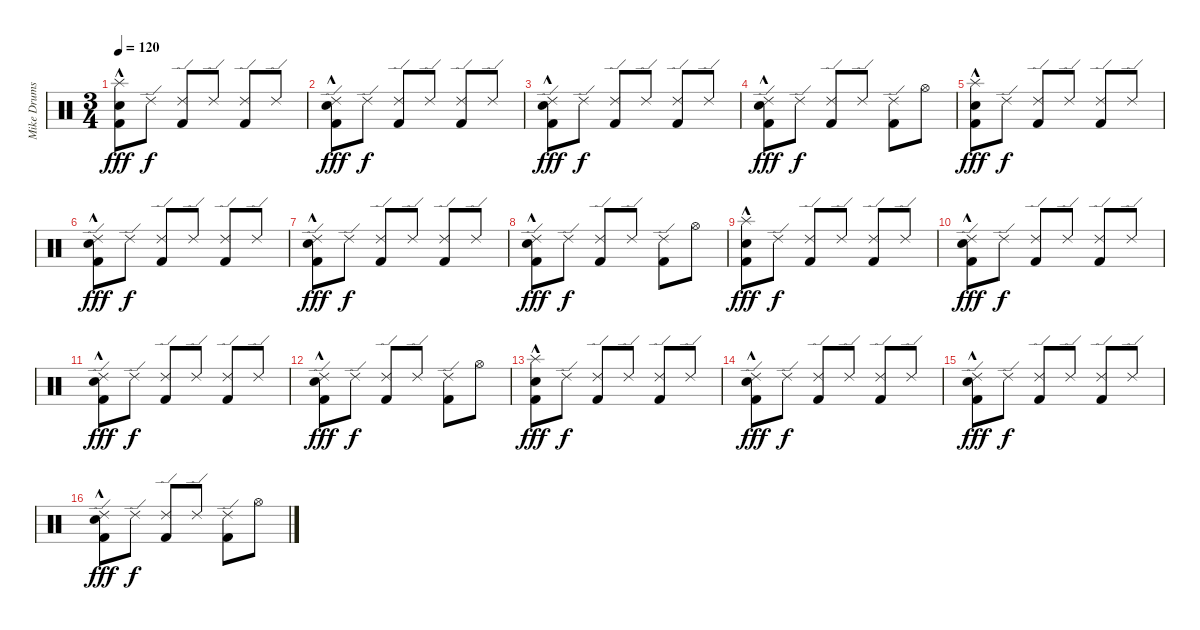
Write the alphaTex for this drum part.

\track ("Mike Drums" "Mike Drums") {instrument percussion}
\staff {score}
\articulation defaults
\ts (3 4)
\tempo 120
\clef neutral
\ks c
("Splash (hit)"{hac} "Snare (hit) 2"{hac} "Kick (hit) 2").8{dy fff} "Ride (edge) 2".8{dy f} ("Ride (edge) 2" "Kick (hit) 2").8 "Ride (edge) 2".8 ("Ride (edge) 2" "Kick (hit) 2").8 "Ride (edge) 2".8 |
("Ride (edge) 2" "Snare (hit) 2"{hac} "Kick (hit) 2").8{dy fff} "Ride (edge) 2".8{dy f} ("Ride (edge) 2" "Kick (hit) 2").8 "Ride (edge) 2".8 ("Ride (edge) 2" "Kick (hit) 2").8 "Ride (edge) 2".8 |
("Ride (edge) 2" "Snare (hit) 2"{hac} "Kick (hit) 2").8{dy fff} "Ride (edge) 2".8{dy f} ("Ride (edge) 2" "Kick (hit) 2").8 "Ride (edge) 2".8 ("Ride (edge) 2" "Kick (hit) 2").8 "Ride (edge) 2".8 |
("Ride (edge) 2" "Snare (hit) 2"{hac} "Kick (hit) 2").8{dy fff} "Ride (edge) 2".8{dy f} ("Ride (edge) 2" "Kick (hit) 2").8 "Ride (edge) 2".8 ("Ride (edge) 2" "Kick (hit) 2").8 "Hi-Hat (open)".8 |
("Splash (hit)"{hac} "Snare (hit) 2"{hac} "Kick (hit) 2").8{dy fff} "Ride (edge) 2".8{dy f} ("Ride (edge) 2" "Kick (hit) 2").8 "Ride (edge) 2".8 ("Ride (edge) 2" "Kick (hit) 2").8 "Ride (edge) 2".8 |
("Ride (edge) 2" "Snare (hit) 2"{hac} "Kick (hit) 2").8{dy fff} "Ride (edge) 2".8{dy f} ("Ride (edge) 2" "Kick (hit) 2").8 "Ride (edge) 2".8 ("Ride (edge) 2" "Kick (hit) 2").8 "Ride (edge) 2".8 |
("Ride (edge) 2" "Snare (hit) 2"{hac} "Kick (hit) 2").8{dy fff} "Ride (edge) 2".8{dy f} ("Ride (edge) 2" "Kick (hit) 2").8 "Ride (edge) 2".8 ("Ride (edge) 2" "Kick (hit) 2").8 "Ride (edge) 2".8 |
("Ride (edge) 2" "Snare (hit) 2"{hac} "Kick (hit) 2").8{dy fff} "Ride (edge) 2".8{dy f} ("Ride (edge) 2" "Kick (hit) 2").8 "Ride (edge) 2".8 ("Ride (edge) 2" "Kick (hit) 2").8 "Hi-Hat (open)".8 |
("Splash (hit)"{hac} "Snare (hit) 2"{hac} "Kick (hit) 2").8{dy fff} "Ride (edge) 2".8{dy f} ("Ride (edge) 2" "Kick (hit) 2").8 "Ride (edge) 2".8 ("Ride (edge) 2" "Kick (hit) 2").8 "Ride (edge) 2".8 |
("Ride (edge) 2" "Snare (hit) 2"{hac} "Kick (hit) 2").8{dy fff} "Ride (edge) 2".8{dy f} ("Ride (edge) 2" "Kick (hit) 2").8 "Ride (edge) 2".8 ("Ride (edge) 2" "Kick (hit) 2").8 "Ride (edge) 2".8 |
("Ride (edge) 2" "Snare (hit) 2"{hac} "Kick (hit) 2").8{dy fff} "Ride (edge) 2".8{dy f} ("Ride (edge) 2" "Kick (hit) 2").8 "Ride (edge) 2".8 ("Ride (edge) 2" "Kick (hit) 2").8 "Ride (edge) 2".8 |
("Ride (edge) 2" "Snare (hit) 2"{hac} "Kick (hit) 2").8{dy fff} "Ride (edge) 2".8{dy f} ("Ride (edge) 2" "Kick (hit) 2").8 "Ride (edge) 2".8 ("Ride (edge) 2" "Kick (hit) 2").8 "Hi-Hat (open)".8 |
("Splash (hit)"{hac} "Snare (hit) 2"{hac} "Kick (hit) 2").8{dy fff} "Ride (edge) 2".8{dy f} ("Ride (edge) 2" "Kick (hit) 2").8 "Ride (edge) 2".8 ("Ride (edge) 2" "Kick (hit) 2").8 "Ride (edge) 2".8 |
("Ride (edge) 2" "Snare (hit) 2"{hac} "Kick (hit) 2").8{dy fff} "Ride (edge) 2".8{dy f} ("Ride (edge) 2" "Kick (hit) 2").8 "Ride (edge) 2".8 ("Ride (edge) 2" "Kick (hit) 2").8 "Ride (edge) 2".8 |
("Ride (edge) 2" "Snare (hit) 2"{hac} "Kick (hit) 2").8{dy fff} "Ride (edge) 2".8{dy f} ("Ride (edge) 2" "Kick (hit) 2").8 "Ride (edge) 2".8 ("Ride (edge) 2" "Kick (hit) 2").8 "Ride (edge) 2".8 |
("Ride (edge) 2" "Snare (hit) 2"{hac} "Kick (hit) 2").8{dy fff} "Ride (edge) 2".8{dy f} ("Ride (edge) 2" "Kick (hit) 2").8 "Ride (edge) 2".8 ("Ride (edge) 2" "Kick (hit) 2").8 "Hi-Hat (open)".8
